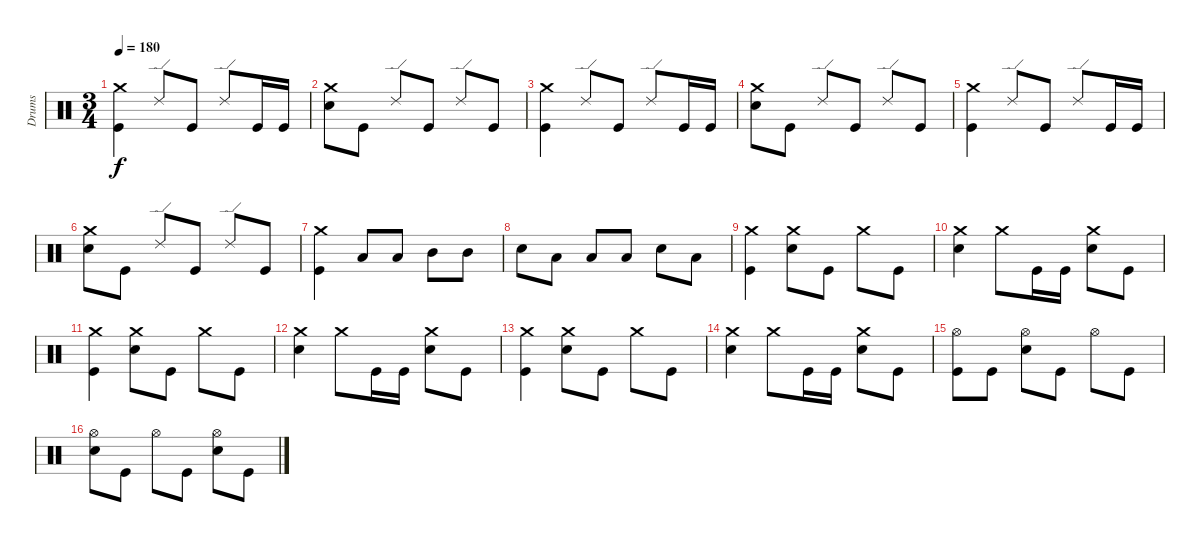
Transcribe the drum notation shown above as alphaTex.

\track ("Drums" "Drums") {instrument percussion}
\staff {score}
\articulation defaults
\ts (3 4)
\tempo 180
\clef neutral
\ks c
("Crash medium (hit)" "Kick (hit)").4{dy f} "Ride (edge) 2".8 "Kick (hit)".8 "Ride (edge) 2".8 "Kick (hit)".16 "Kick (hit)".16 |
("Crash medium (hit)" "Electric Snare (hit)").8 "Kick (hit)".8 "Ride (edge) 2".8 "Kick (hit)".8 "Ride (edge) 2".8 "Kick (hit)".8 |
("Crash medium (hit)" "Kick (hit)").4 "Ride (edge) 2".8 "Kick (hit)".8 "Ride (edge) 2".8 "Kick (hit)".16 "Kick (hit)".16 |
("Crash medium (hit)" "Electric Snare (hit)").8 "Kick (hit)".8 "Ride (edge) 2".8 "Kick (hit)".8 "Ride (edge) 2".8 "Kick (hit)".8 |
("Crash medium (hit)" "Kick (hit)").4 "Ride (edge) 2".8 "Kick (hit)".8 "Ride (edge) 2".8 "Kick (hit)".16 "Kick (hit)".16 |
("Crash medium (hit)" "Electric Snare (hit)").8 "Kick (hit)".8 "Ride (edge) 2".8 "Kick (hit)".8 "Ride (edge) 2".8 "Kick (hit)".8 |
("Crash medium (hit)" "Kick (hit)").4 "Low Tom (hit)".8 "Low Tom (hit)".8 "Mid Tom (hit)".8 "Mid Tom (hit)".8 |
"Electric Snare (hit)".8 "Low Floor Tom (hit)".8 "Low Floor Tom (hit)".8 "Low Floor Tom (hit)".8 "Electric Snare (hit)".8 "Low Floor Tom (hit)".8 |
("Crash medium (hit)" "Kick (hit)").4 ("Crash medium (hit)" "Electric Snare (hit)").8 "Kick (hit)".8 "Crash medium (hit)".8 "Kick (hit)".8 |
("Crash medium (hit)" "Electric Snare (hit)").4 "Crash medium (hit)".8 "Kick (hit)".16 "Kick (hit)".16 ("Crash medium (hit)" "Electric Snare (hit)").8 "Kick (hit)".8 |
("Crash medium (hit)" "Kick (hit)").4 ("Crash medium (hit)" "Electric Snare (hit)").8 "Kick (hit)".8 "Crash medium (hit)".8 "Kick (hit)".8 |
("Crash medium (hit)" "Electric Snare (hit)").4 "Crash medium (hit)".8 "Kick (hit)".16 "Kick (hit)".16 ("Crash medium (hit)" "Electric Snare (hit)").8 "Kick (hit)".8 |
("Crash medium (hit)" "Kick (hit)").4 ("Crash medium (hit)" "Electric Snare (hit)").8 "Kick (hit)".8 "Crash medium (hit)".8 "Kick (hit)".8 |
("Crash medium (hit)" "Electric Snare (hit)").4 "Crash medium (hit)".8 "Kick (hit)".16 "Kick (hit)".16 ("Crash medium (hit)" "Electric Snare (hit)").8 "Kick (hit)".8 |
("Hi-Hat (open)" "Kick (hit)").8 "Kick (hit)".8 ("Hi-Hat (open)" "Electric Snare (hit)").8 "Kick (hit)".8 "Hi-Hat (open)".8 "Kick (hit)".8 |
("Hi-Hat (open)" "Electric Snare (hit)").8 "Kick (hit)".8 "Hi-Hat (open)".8 "Kick (hit)".8 ("Hi-Hat (open)" "Electric Snare (hit)").8 "Kick (hit)".8
